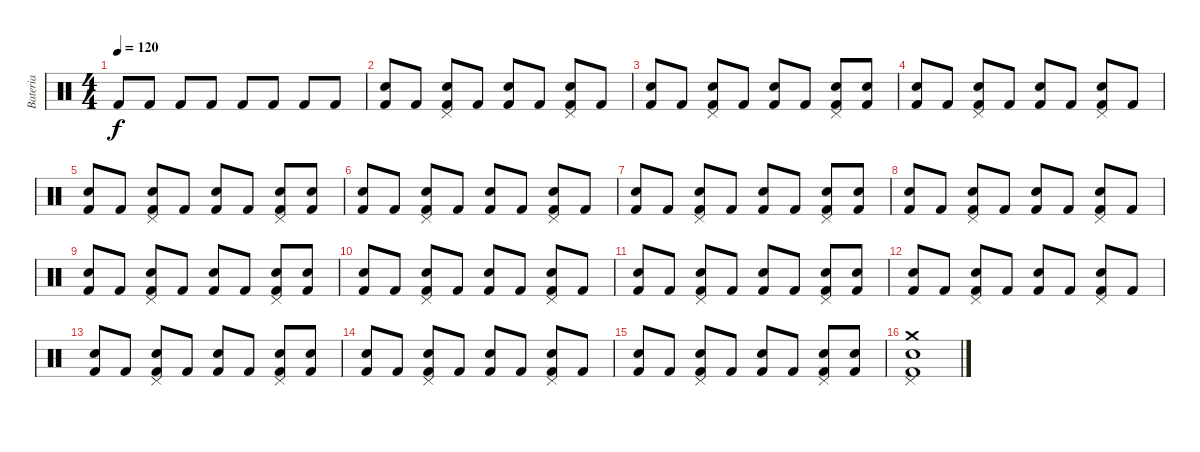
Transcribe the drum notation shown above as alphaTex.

\track ("Bateria" "Bateria") {instrument percussion}
\staff {score}
\articulation defaults
\ts (4 4)
\tempo 120
\clef neutral
\ks c "Kick (hit) 2".8{dy f} "Kick (hit) 2".8 "Kick (hit) 2".8 "Kick (hit) 2".8 "Kick (hit) 2".8 "Kick (hit) 2".8 "Kick (hit) 2".8 "Kick (hit) 2".8
|
("Kick (hit) 2" "Snare (hit) 2").8 "Kick (hit) 2".8 ("Kick (hit) 2" "Snare (hit) 2" "Pedal Hi-Hat (hit)").8 "Kick (hit) 2".8 ("Kick (hit) 2" "Snare (hit) 2").8 "Kick (hit) 2".8 ("Kick (hit) 2" "Snare (hit) 2" "Pedal Hi-Hat (hit)").8 "Kick (hit) 2".8 |
("Kick (hit) 2" "Snare (hit) 2").8 "Kick (hit) 2".8 ("Kick (hit) 2" "Snare (hit) 2" "Pedal Hi-Hat (hit)").8 "Kick (hit) 2".8 ("Kick (hit) 2" "Snare (hit) 2").8 "Kick (hit) 2".8 ("Kick (hit) 2" "Snare (hit) 2" "Pedal Hi-Hat (hit)").8 ("Kick (hit) 2" "Snare (hit) 2").8 |
("Kick (hit) 2" "Snare (hit) 2").8 "Kick (hit) 2".8 ("Kick (hit) 2" "Snare (hit) 2" "Pedal Hi-Hat (hit)").8 "Kick (hit) 2".8 ("Kick (hit) 2" "Snare (hit) 2").8 "Kick (hit) 2".8 ("Kick (hit) 2" "Snare (hit) 2" "Pedal Hi-Hat (hit)").8 "Kick (hit) 2".8 |
("Kick (hit) 2" "Snare (hit) 2").8 "Kick (hit) 2".8 ("Kick (hit) 2" "Snare (hit) 2" "Pedal Hi-Hat (hit)").8 "Kick (hit) 2".8 ("Kick (hit) 2" "Snare (hit) 2").8 "Kick (hit) 2".8 ("Kick (hit) 2" "Snare (hit) 2" "Pedal Hi-Hat (hit)").8 ("Kick (hit) 2" "Snare (hit) 2").8 |
("Kick (hit) 2" "Snare (hit) 2").8 "Kick (hit) 2".8 ("Kick (hit) 2" "Snare (hit) 2" "Pedal Hi-Hat (hit)").8 "Kick (hit) 2".8 ("Kick (hit) 2" "Snare (hit) 2").8 "Kick (hit) 2".8 ("Kick (hit) 2" "Snare (hit) 2" "Pedal Hi-Hat (hit)").8 "Kick (hit) 2".8 |
("Kick (hit) 2" "Snare (hit) 2").8 "Kick (hit) 2".8 ("Kick (hit) 2" "Snare (hit) 2" "Pedal Hi-Hat (hit)").8 "Kick (hit) 2".8 ("Kick (hit) 2" "Snare (hit) 2").8 "Kick (hit) 2".8 ("Kick (hit) 2" "Snare (hit) 2" "Pedal Hi-Hat (hit)").8 ("Kick (hit) 2" "Snare (hit) 2").8 |
("Kick (hit) 2" "Snare (hit) 2").8 "Kick (hit) 2".8 ("Kick (hit) 2" "Snare (hit) 2" "Pedal Hi-Hat (hit)").8 "Kick (hit) 2".8 ("Kick (hit) 2" "Snare (hit) 2").8 "Kick (hit) 2".8 ("Kick (hit) 2" "Snare (hit) 2" "Pedal Hi-Hat (hit)").8 "Kick (hit) 2".8 |
("Kick (hit) 2" "Snare (hit) 2").8 "Kick (hit) 2".8 ("Kick (hit) 2" "Snare (hit) 2" "Pedal Hi-Hat (hit)").8 "Kick (hit) 2".8 ("Kick (hit) 2" "Snare (hit) 2").8 "Kick (hit) 2".8 ("Kick (hit) 2" "Snare (hit) 2" "Pedal Hi-Hat (hit)").8 ("Kick (hit) 2" "Snare (hit) 2").8 |
("Kick (hit) 2" "Snare (hit) 2").8 "Kick (hit) 2".8 ("Kick (hit) 2" "Snare (hit) 2" "Pedal Hi-Hat (hit)").8 "Kick (hit) 2".8 ("Kick (hit) 2" "Snare (hit) 2").8 "Kick (hit) 2".8 ("Kick (hit) 2" "Snare (hit) 2" "Pedal Hi-Hat (hit)").8 "Kick (hit) 2".8 |
("Kick (hit) 2" "Snare (hit) 2").8 "Kick (hit) 2".8 ("Kick (hit) 2" "Snare (hit) 2" "Pedal Hi-Hat (hit)").8 "Kick (hit) 2".8 ("Kick (hit) 2" "Snare (hit) 2").8 "Kick (hit) 2".8 ("Kick (hit) 2" "Snare (hit) 2" "Pedal Hi-Hat (hit)").8 ("Kick (hit) 2" "Snare (hit) 2").8 |
("Kick (hit) 2" "Snare (hit) 2").8 "Kick (hit) 2".8 ("Kick (hit) 2" "Snare (hit) 2" "Pedal Hi-Hat (hit)").8 "Kick (hit) 2".8 ("Kick (hit) 2" "Snare (hit) 2").8 "Kick (hit) 2".8 ("Kick (hit) 2" "Snare (hit) 2" "Pedal Hi-Hat (hit)").8 "Kick (hit) 2".8 |
("Kick (hit) 2" "Snare (hit) 2").8 "Kick (hit) 2".8 ("Kick (hit) 2" "Snare (hit) 2" "Pedal Hi-Hat (hit)").8 "Kick (hit) 2".8 ("Kick (hit) 2" "Snare (hit) 2").8 "Kick (hit) 2".8 ("Kick (hit) 2" "Snare (hit) 2" "Pedal Hi-Hat (hit)").8 ("Kick (hit) 2" "Snare (hit) 2").8 |
("Kick (hit) 2" "Snare (hit) 2").8 "Kick (hit) 2".8 ("Kick (hit) 2" "Snare (hit) 2" "Pedal Hi-Hat (hit)").8 "Kick (hit) 2".8 ("Kick (hit) 2" "Snare (hit) 2").8 "Kick (hit) 2".8 ("Kick (hit) 2" "Snare (hit) 2" "Pedal Hi-Hat (hit)").8 "Kick (hit) 2".8 |
("Kick (hit) 2" "Snare (hit) 2").8 "Kick (hit) 2".8 ("Kick (hit) 2" "Snare (hit) 2" "Pedal Hi-Hat (hit)").8 "Kick (hit) 2".8 ("Kick (hit) 2" "Snare (hit) 2").8 "Kick (hit) 2".8 ("Kick (hit) 2" "Snare (hit) 2" "Pedal Hi-Hat (hit)").8 ("Kick (hit) 2" "Snare (hit) 2").8 |
("Kick (hit) 2" "Snare (hit) 2" "Pedal Hi-Hat (hit)" "Crash medium (hit)").1
